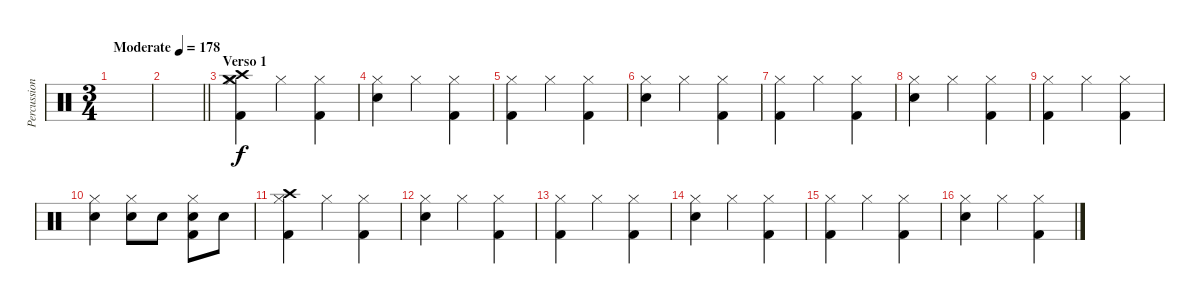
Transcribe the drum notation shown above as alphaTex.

\track ("Percussion" "Percussion") {instrument percussion}
\staff {score}
\articulation defaults
\ts (3 4)
\tempo (178 "Moderate")
\clef neutral
\ks c
|
\barLineRight lightlight
|
\section ("" "Verso 1")
("Hi-Hat (closed)" "Crash medium (hit)" "Crash high (hit)" "Kick (hit) 2").4 "Hi-Hat (closed)".4 ("Hi-Hat (closed)" "Kick (hit) 2").4 |
("Hi-Hat (closed)" "Snare (hit) 2").4 "Hi-Hat (closed)".4 ("Hi-Hat (closed)" "Kick (hit) 2").4 |
("Hi-Hat (closed)" "Kick (hit) 2").4 "Hi-Hat (closed)".4 ("Hi-Hat (closed)" "Kick (hit) 2").4 |
("Hi-Hat (closed)" "Snare (hit) 2").4 "Hi-Hat (closed)".4 ("Hi-Hat (closed)" "Kick (hit) 2").4 |
("Hi-Hat (closed)" "Kick (hit) 2").4 "Hi-Hat (closed)".4 ("Hi-Hat (closed)" "Kick (hit) 2").4 |
("Hi-Hat (closed)" "Snare (hit) 2").4 "Hi-Hat (closed)".4 ("Hi-Hat (closed)" "Kick (hit) 2").4 |
("Hi-Hat (closed)" "Kick (hit) 2").4 "Hi-Hat (closed)".4 ("Hi-Hat (closed)" "Kick (hit) 2").4 |
("Hi-Hat (closed)" "Snare (hit) 2").4 ("Hi-Hat (closed)" "Snare (hit) 2").8 "Snare (hit) 2".8 ("Hi-Hat (closed)" "Snare (hit) 2" "Kick (hit) 2").8 "Snare (hit) 2".8 |
("Hi-Hat (closed)" "Crash high (hit)" "Kick (hit) 2").4 "Hi-Hat (closed)".4 ("Hi-Hat (closed)" "Kick (hit) 2").4 |
("Hi-Hat (closed)" "Snare (hit) 2").4 "Hi-Hat (closed)".4 ("Hi-Hat (closed)" "Kick (hit) 2").4 |
("Hi-Hat (closed)" "Kick (hit) 2").4 "Hi-Hat (closed)".4 ("Hi-Hat (closed)" "Kick (hit) 2").4 |
("Hi-Hat (closed)" "Snare (hit) 2").4 "Hi-Hat (closed)".4 ("Hi-Hat (closed)" "Kick (hit) 2").4 |
("Hi-Hat (closed)" "Kick (hit) 2").4 "Hi-Hat (closed)".4 ("Hi-Hat (closed)" "Kick (hit) 2").4 |
("Hi-Hat (closed)" "Snare (hit) 2").4 "Hi-Hat (closed)".4 ("Hi-Hat (closed)" "Kick (hit) 2").4
